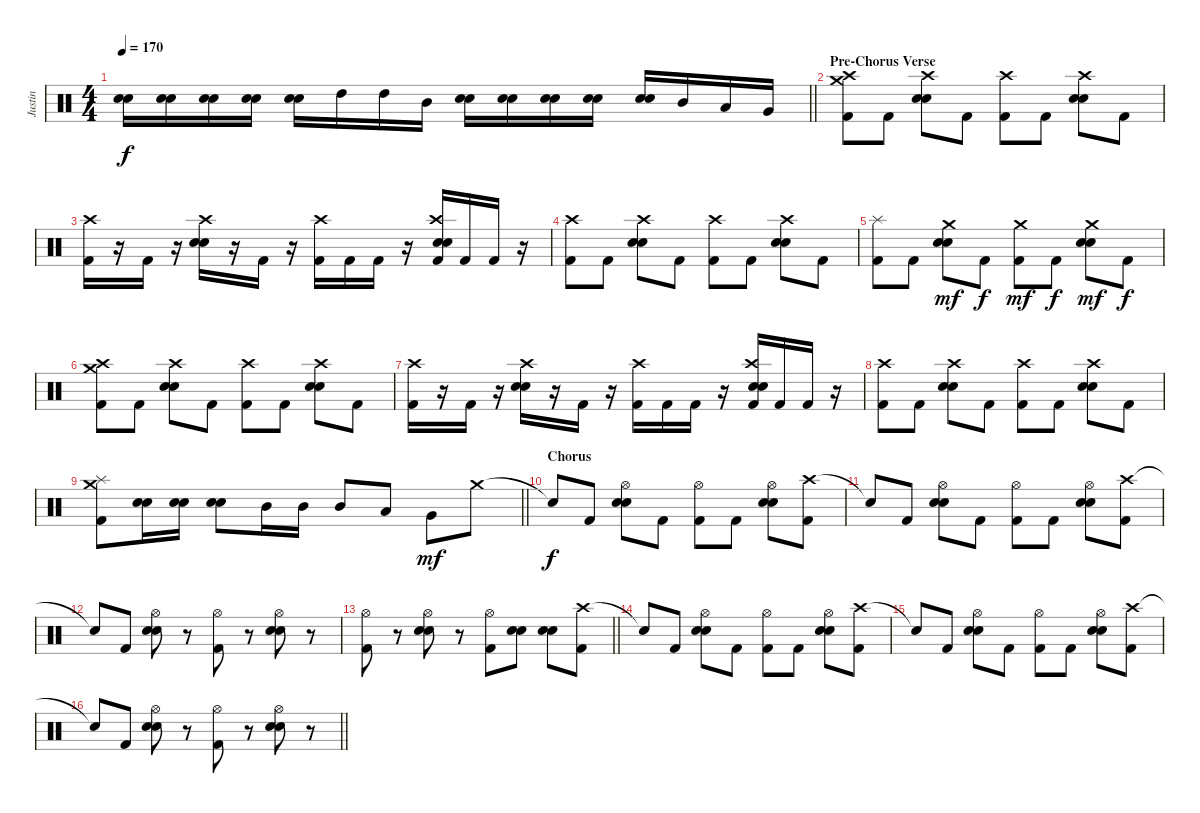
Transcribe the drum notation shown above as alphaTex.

\track ("Justin" "Justin") {instrument percussion}
\staff {score}
\articulation defaults
\ts (4 4)
\tempo 170
\clef neutral
\barLineRight lightlight
\ks c
("Electric Snare (hit)" "Snare (hit) 2").16{dy f} ("Electric Snare (hit)" "Snare (hit) 2").16 ("Electric Snare (hit)" "Snare (hit) 2").16 ("Electric Snare (hit)" "Snare (hit) 2").16 ("Electric Snare (hit)" "Snare (hit) 2").16 "High Tom (hit)".16 "High Tom (hit)".16 "Mid Tom (hit)".16 ("Electric Snare (hit)" "Snare (hit) 2").16 ("Electric Snare (hit)" "Snare (hit) 2").16 ("Electric Snare (hit)" "Snare (hit) 2").16 ("Electric Snare (hit)" "Snare (hit) 2").16 ("Electric Snare (hit)" "Snare (hit) 2").16 "Mid Tom (hit)".16 "Low Tom (hit)".16 "Very Low Tom (hit)".16 |
\section ("" "Pre-Chorus Verse")
("Crash high (hit)" "Crash medium (hit)" "Kick (hit) 2").8 "Kick (hit) 2".8 ("Crash high (hit)" "Electric Snare (hit)" "Snare (hit) 2").8 "Kick (hit) 2".8 ("Crash high (hit)" "Kick (hit) 2").8 "Kick (hit) 2".8 ("Crash high (hit)" "Electric Snare (hit)" "Snare (hit) 2").8 "Kick (hit) 2".8 |
("Crash high (hit)" "Kick (hit) 2").16 r.16 "Kick (hit) 2".16 r.16 ("Crash high (hit)" "Electric Snare (hit)" "Snare (hit) 2").16 r.16 "Kick (hit) 2".16 r.16 ("Crash high (hit)" "Kick (hit) 2").16 "Kick (hit) 2".16 "Kick (hit) 2".16 r.16 ("Crash high (hit)" "Electric Snare (hit)" "Snare (hit) 2" "Kick (hit) 2").16 "Kick (hit) 2".16 "Kick (hit) 2".16 r.16 |
("Crash high (hit)" "Kick (hit) 2").8 "Kick (hit) 2".8 ("Crash high (hit)" "Electric Snare (hit)" "Snare (hit) 2").8 "Kick (hit) 2".8 ("Crash high (hit)" "Kick (hit) 2").8 "Kick (hit) 2".8 ("Crash high (hit)" "Electric Snare (hit)" "Snare (hit) 2").8 "Kick (hit) 2".8 |
("Splash (hit)" "Kick (hit) 2").8 "Kick (hit) 2".8 ("Crash medium (hit)" "Electric Snare (hit)" "Snare (hit) 2").8{dy mf} "Kick (hit) 2".8{dy f} ("Crash medium (hit)" "Kick (hit) 2").8{dy mf} "Kick (hit) 2".8{dy f} ("Crash medium (hit)" "Electric Snare (hit)" "Snare (hit) 2").8{dy mf} "Kick (hit) 2".8{dy f} |
("Crash high (hit)" "Crash medium (hit)" "Kick (hit) 2").8 "Kick (hit) 2".8 ("Crash high (hit)" "Electric Snare (hit)" "Snare (hit) 2").8 "Kick (hit) 2".8 ("Crash high (hit)" "Kick (hit) 2").8 "Kick (hit) 2".8 ("Crash high (hit)" "Electric Snare (hit)" "Snare (hit) 2").8 "Kick (hit) 2".8 |
("Crash high (hit)" "Kick (hit) 2").16 r.16 "Kick (hit) 2".16 r.16 ("Crash high (hit)" "Electric Snare (hit)" "Snare (hit) 2").16 r.16 "Kick (hit) 2".16 r.16 ("Crash high (hit)" "Kick (hit) 2").16 "Kick (hit) 2".16 "Kick (hit) 2".16 r.16 ("Crash high (hit)" "Electric Snare (hit)" "Snare (hit) 2" "Kick (hit) 2").16 "Kick (hit) 2".16 "Kick (hit) 2".16 r.16 |
("Crash high (hit)" "Kick (hit) 2").8 "Kick (hit) 2".8 ("Crash high (hit)" "Electric Snare (hit)" "Snare (hit) 2").8 "Kick (hit) 2".8 ("Crash high (hit)" "Kick (hit) 2").8 "Kick (hit) 2".8 ("Crash high (hit)" "Electric Snare (hit)" "Snare (hit) 2").8 "Kick (hit) 2".8 |
\barLineRight lightlight
("Crash medium (hit)" "Splash (hit)" "Kick (hit) 2").8 ("Electric Snare (hit)" "Snare (hit) 2").16 ("Electric Snare (hit)" "Snare (hit) 2").16 ("Electric Snare (hit)" "Snare (hit) 2").8 "Mid Tom (hit)".16 "Mid Tom (hit)".16 "Mid Tom (hit)".8 "Low Tom (hit)".8 "Very Low Tom (hit)".8{dy mf} "Crash medium (hit)".8 |
\section ("" "Chorus")
"Snare (hit)"{t}.8{dy f} "Kick (hit) 2".8 ("Hi-Hat (open)" "Electric Snare (hit)" "Snare (hit) 2").8 "Kick (hit) 2".8 ("Hi-Hat (open)" "Kick (hit) 2").8 "Kick (hit) 2".8 ("Hi-Hat (open)" "Electric Snare (hit)" "Snare (hit) 2").8 ("Crash high (hit)" "Kick (hit) 2").8 |
"Snare (hit)"{t}.8 "Kick (hit) 2".8 ("Hi-Hat (open)" "Electric Snare (hit)" "Snare (hit) 2").8 "Kick (hit) 2".8 ("Hi-Hat (open)" "Kick (hit) 2").8 "Kick (hit) 2".8 ("Hi-Hat (open)" "Electric Snare (hit)" "Snare (hit) 2").8 ("Crash high (hit)" "Kick (hit) 2").8 |
"Snare (hit)"{t}.8 "Kick (hit) 2".8 ("Hi-Hat (open)" "Electric Snare (hit)" "Snare (hit) 2").8 r.8 ("Hi-Hat (open)" "Kick (hit) 2").8 r.8 ("Hi-Hat (open)" "Electric Snare (hit)" "Snare (hit) 2").8 r.8 |
\barLineRight lightlight
("Hi-Hat (open)" "Kick (hit) 2").8 r.8 ("Hi-Hat (open)" "Electric Snare (hit)" "Snare (hit) 2").8 r.8 ("Hi-Hat (open)" "Kick (hit) 2").8 ("Electric Snare (hit)" "Snare (hit) 2").8 ("Electric Snare (hit)" "Snare (hit) 2").8 ("Crash high (hit)" "Kick (hit) 2").8 |
"Snare (hit)"{t}.8 "Kick (hit) 2".8 ("Hi-Hat (open)" "Electric Snare (hit)" "Snare (hit) 2").8 "Kick (hit) 2".8 ("Hi-Hat (open)" "Kick (hit) 2").8 "Kick (hit) 2".8 ("Hi-Hat (open)" "Electric Snare (hit)" "Snare (hit) 2").8 ("Crash high (hit)" "Kick (hit) 2").8 |
"Snare (hit)"{t}.8 "Kick (hit) 2".8 ("Hi-Hat (open)" "Electric Snare (hit)" "Snare (hit) 2").8 "Kick (hit) 2".8 ("Hi-Hat (open)" "Kick (hit) 2").8 "Kick (hit) 2".8 ("Hi-Hat (open)" "Electric Snare (hit)" "Snare (hit) 2").8 ("Crash high (hit)" "Kick (hit) 2").8 |
\barLineRight lightlight "Snare (hit)"{t}.8 "Kick (hit) 2".8
("Hi-Hat (open)" "Electric Snare (hit)" "Snare (hit) 2").8 r.8 ("Hi-Hat (open)" "Kick (hit) 2").8 r.8 ("Hi-Hat (open)" "Electric Snare (hit)" "Snare (hit) 2").8 r.8
